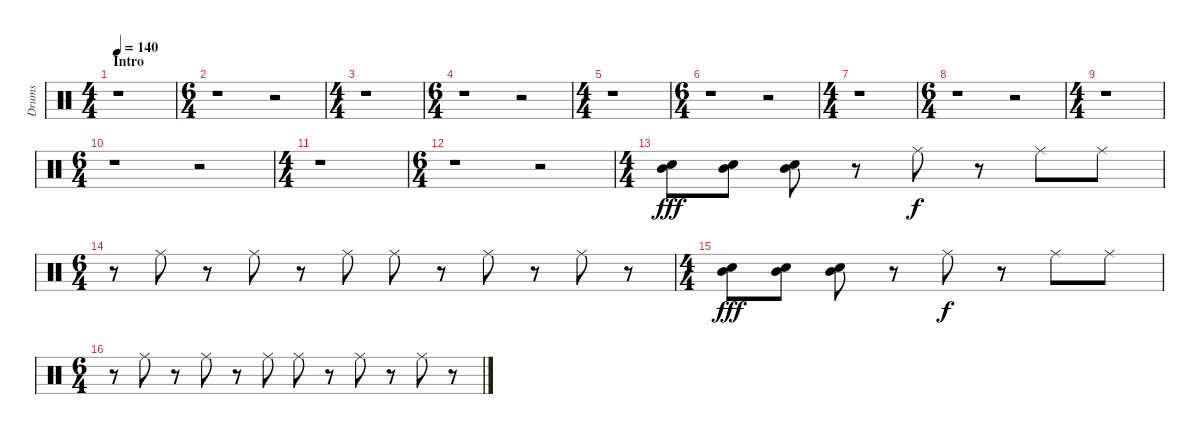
\track ("Drums" "Drums") {instrument percussion}
\staff {score}
\articulation defaults
\ts (4 4)
\section ("" "Intro")
\tempo 140
\clef neutral
\ks c
r.1{dy fff} |
\ts (6 4)
r.1 r.2 |
\ts (4 4)
r.1 |
\ts (6 4)
r.1 r.2 |
\ts (4 4)
r.1 |
\ts (6 4)
r.1 r.2 |
\ts (4 4)
r.1 |
\ts (6 4)
r.1 r.2 |
\ts (4 4)
r.1 |
\ts (6 4)
r.1 r.2 |
\ts (4 4)
r.1 |
\ts (6 4)
r.1 r.2 |
\ts (4 4)
("Electric Snare (hit)" "Mid Tom (hit)").8 ("Electric Snare (hit)" "Mid Tom (hit)").8 ("Electric Snare (hit)" "Mid Tom (hit)").8 r.8 "Ride (middle)".8{dy f} r.8 "Ride (middle)".8 "Ride (middle)".8 |
\ts (6 4)
r.8 "Ride (middle)".8 r.8 "Ride (middle)".8 r.8 "Ride (middle)".8 "Ride (middle)".8 r.8 "Ride (middle)".8 r.8 "Ride (middle)".8 r.8 |
\ts (4 4)
("Electric Snare (hit)" "Mid Tom (hit)").8{dy fff} ("Electric Snare (hit)" "Mid Tom (hit)").8 ("Electric Snare (hit)" "Mid Tom (hit)").8 r.8 "Ride (middle)".8{dy f} r.8 "Ride (middle)".8 "Ride (middle)".8 |
\ts (6 4)
r.8 "Ride (middle)".8 r.8 "Ride (middle)".8 r.8 "Ride (middle)".8 "Ride (middle)".8 r.8 "Ride (middle)".8 r.8 "Ride (middle)".8 r.8
